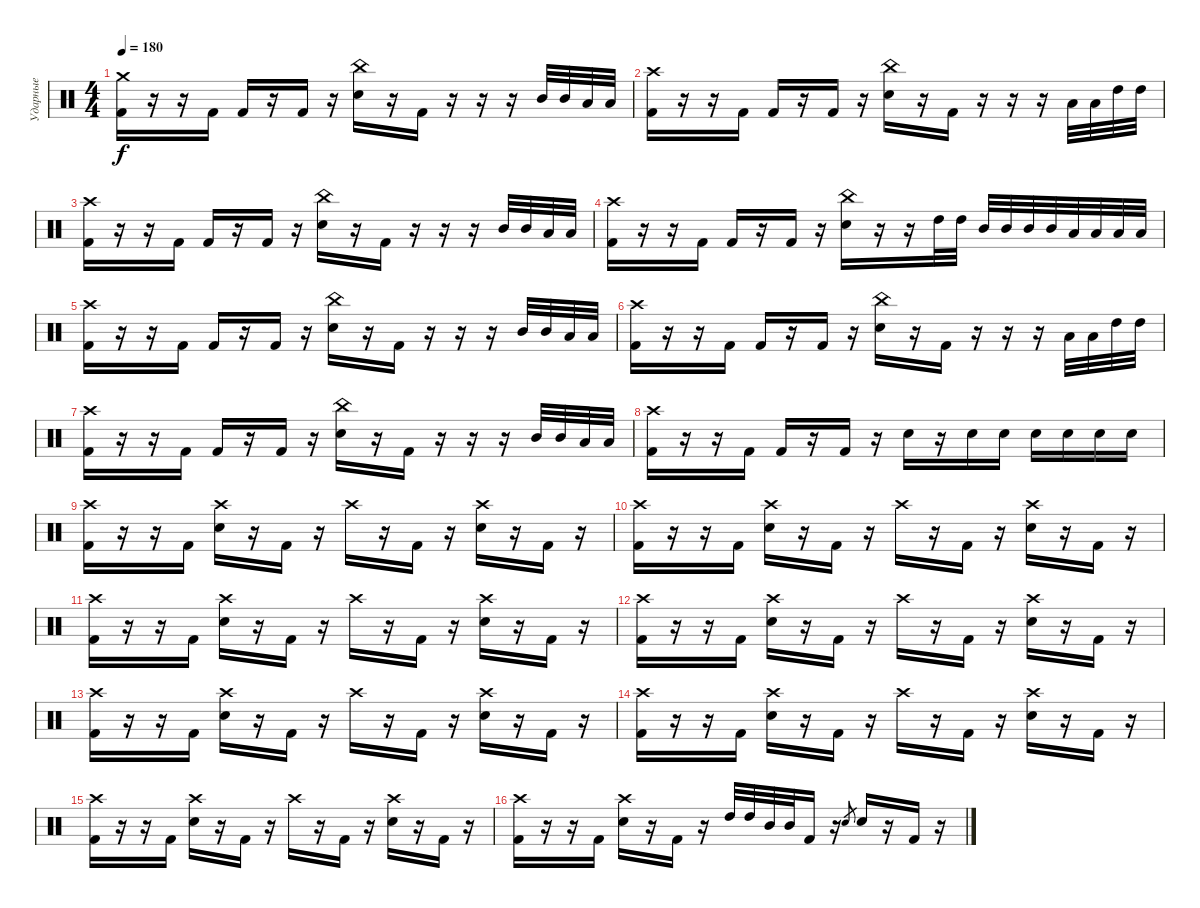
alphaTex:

\track ("Ударные" "Ударные") {instrument percussion}
\staff {score}
\articulation defaults
\ts (4 4)
\tempo 180
\clef neutral
\ks c
("Crash medium (hit)" "Kick (hit) 2").16{dy f} r.16 r.16 "Kick (hit) 2".16 "Kick (hit) 2".16 r.16 "Kick (hit) 2".16 r.16 ("China (hit)" "Electric Snare (hit)").16 r.16 "Kick (hit) 2".16 r.16 r.16 r.16 "Mid Tom (hit)".32 "Mid Tom (hit)".32 "Low Tom (hit)".32 "Low Tom (hit)".32 |
("Crash high (hit)" "Kick (hit) 2").16 r.16 r.16 "Kick (hit) 2".16 "Kick (hit) 2".16 r.16 "Kick (hit) 2".16 r.16 ("China (hit)" "Electric Snare (hit)").16 r.16 "Kick (hit) 2".16 r.16 r.16 r.16 "Low Tom (hit)".32 "Low Tom (hit)".32 "High Tom (hit)".32 "High Tom (hit)".32 |
("Crash high (hit)" "Kick (hit) 2").16 r.16 r.16 "Kick (hit) 2".16 "Kick (hit) 2".16 r.16 "Kick (hit) 2".16 r.16 ("China (hit)" "Electric Snare (hit)").16 r.16 "Kick (hit) 2".16 r.16 r.16 r.16 "Mid Tom (hit)".32 "Mid Tom (hit)".32 "Low Tom (hit)".32 "Low Tom (hit)".32 |
("Crash high (hit)" "Kick (hit) 2").16 r.16 r.16 "Kick (hit) 2".16 "Kick (hit) 2".16 r.16 "Kick (hit) 2".16 r.16 ("China (hit)" "Electric Snare (hit)").16 r.16 r.16 "High Tom (hit)".32 "High Tom (hit)".32 "Mid Tom (hit)".32 "Mid Tom (hit)".32 "Mid Tom (hit)".32 "Mid Tom (hit)".32 "Low Tom (hit)".32 "Low Tom (hit)".32 "Low Tom (hit)".32 "Low Tom (hit)".32 |
("Crash high (hit)" "Kick (hit) 2").16 r.16 r.16 "Kick (hit) 2".16 "Kick (hit) 2".16 r.16 "Kick (hit) 2".16 r.16 ("China (hit)" "Electric Snare (hit)").16 r.16 "Kick (hit) 2".16 r.16 r.16 r.16 "Mid Tom (hit)".32 "Mid Tom (hit)".32 "Low Tom (hit)".32 "Low Tom (hit)".32 |
("Crash high (hit)" "Kick (hit) 2").16 r.16 r.16 "Kick (hit) 2".16 "Kick (hit) 2".16 r.16 "Kick (hit) 2".16 r.16 ("China (hit)" "Electric Snare (hit)").16 r.16 "Kick (hit) 2".16 r.16 r.16 r.16 "Low Tom (hit)".32 "Low Tom (hit)".32 "High Tom (hit)".32 "High Tom (hit)".32 |
("Crash high (hit)" "Kick (hit) 2").16 r.16 r.16 "Kick (hit) 2".16 "Kick (hit) 2".16 r.16 "Kick (hit) 2".16 r.16 ("China (hit)" "Electric Snare (hit)").16 r.16 "Kick (hit) 2".16 r.16 r.16 r.16 "Mid Tom (hit)".32 "Mid Tom (hit)".32 "Low Tom (hit)".32 "Low Tom (hit)".32 |
("Crash high (hit)" "Kick (hit) 2").16 r.16 r.16 "Kick (hit) 2".16 "Kick (hit) 2".16 r.16 "Kick (hit) 2".16 r.16 "Electric Snare (hit)".16 r.16 "Electric Snare (hit)".16 "Electric Snare (hit)".16 "Electric Snare (hit)".16 "Electric Snare (hit)".16 "Electric Snare (hit)".16 "Electric Snare (hit)".16 |
("Crash high (hit)" "Kick (hit) 2").16 r.16 r.16 "Kick (hit) 2".16 ("Crash high (hit)" "Electric Snare (hit)").16 r.16 "Kick (hit) 2".16 r.16 "Crash high (hit)".16 r.16 "Kick (hit) 2".16 r.16 ("Crash high (hit)" "Electric Snare (hit)").16 r.16 "Kick (hit) 2".16 r.16 |
("Crash high (hit)" "Kick (hit) 2").16 r.16 r.16 "Kick (hit) 2".16 ("Crash high (hit)" "Electric Snare (hit)").16 r.16 "Kick (hit) 2".16 r.16 "Crash high (hit)".16 r.16 "Kick (hit) 2".16 r.16 ("Crash high (hit)" "Electric Snare (hit)").16 r.16 "Kick (hit) 2".16 r.16 |
("Crash high (hit)" "Kick (hit) 2").16 r.16 r.16 "Kick (hit) 2".16 ("Crash high (hit)" "Electric Snare (hit)").16 r.16 "Kick (hit) 2".16 r.16 "Crash high (hit)".16 r.16 "Kick (hit) 2".16 r.16 ("Crash high (hit)" "Electric Snare (hit)").16 r.16 "Kick (hit) 2".16 r.16 |
("Crash high (hit)" "Kick (hit) 2").16 r.16 r.16 "Kick (hit) 2".16 ("Crash high (hit)" "Electric Snare (hit)").16 r.16 "Kick (hit) 2".16 r.16 "Crash high (hit)".16 r.16 "Kick (hit) 2".16 r.16 ("Crash high (hit)" "Electric Snare (hit)").16 r.16 "Kick (hit) 2".16 r.16 |
("Crash high (hit)" "Kick (hit) 2").16 r.16 r.16 "Kick (hit) 2".16 ("Crash high (hit)" "Electric Snare (hit)").16 r.16 "Kick (hit) 2".16 r.16 "Crash high (hit)".16 r.16 "Kick (hit) 2".16 r.16 ("Crash high (hit)" "Electric Snare (hit)").16 r.16 "Kick (hit) 2".16 r.16 |
("Crash high (hit)" "Kick (hit) 2").16 r.16 r.16 "Kick (hit) 2".16 ("Crash high (hit)" "Electric Snare (hit)").16 r.16 "Kick (hit) 2".16 r.16 "Crash high (hit)".16 r.16 "Kick (hit) 2".16 r.16 ("Crash high (hit)" "Electric Snare (hit)").16 r.16 "Kick (hit) 2".16 r.16 |
("Crash high (hit)" "Kick (hit) 2").16 r.16 r.16 "Kick (hit) 2".16 ("Crash high (hit)" "Electric Snare (hit)").16 r.16 "Kick (hit) 2".16 r.16 "Crash high (hit)".16 r.16 "Kick (hit) 2".16 r.16 ("Crash high (hit)" "Electric Snare (hit)").16 r.16 "Kick (hit) 2".16 r.16 |
("Crash high (hit)" "Kick (hit) 2").16 r.16 r.16 "Kick (hit) 2".16 ("Crash high (hit)" "Electric Snare (hit)").16 r.16 "Kick (hit) 2".16 r.16 "High Tom (hit)".32 "High Tom (hit)".32 "Mid Tom (hit)".32 "Mid Tom (hit)".32 "Kick (hit) 2".16 r.16 "Electric Snare (hit)".8{gr} "Electric Snare (hit)".16 r.16 "Kick (hit) 2".16 r.16
